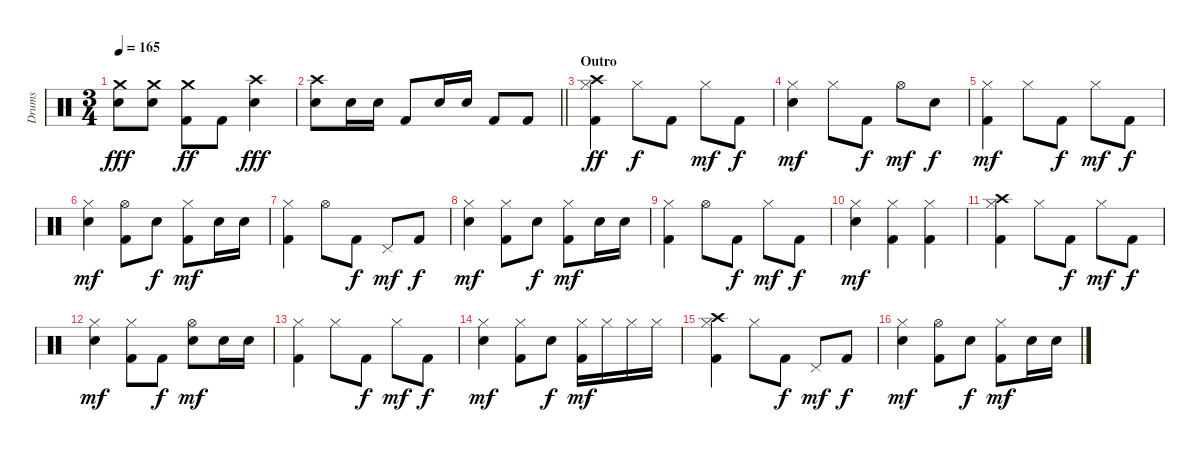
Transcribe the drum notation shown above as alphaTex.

\track ("Drums" "Drums") {instrument percussion}
\staff {score}
\articulation defaults
\ts (3 4)
\tempo 165
\clef neutral
\ks c
("Crash medium (hit)" "Snare (hit) 2").8{dy fff} ("Crash medium (hit)" "Snare (hit) 2").8 ("Crash medium (hit)" "Kick (hit) 2").8{dy ff} "Kick (hit) 2".8 ("Crash high (hit)" "Snare (hit) 2").4{dy fff} |
\barLineRight lightlight
("Crash high (hit)" "Snare (hit) 2").8 "Snare (hit) 2".16 "Snare (hit) 2".16 "Kick (hit) 2".8 "Snare (hit) 2".16 "Snare (hit) 2".16 "Kick (hit) 2".8 "Kick (hit) 2".8 |
\section ("" "Outro")
("Crash high (hit)" "Hi-Hat (closed)" "Kick (hit) 2").4{dy ff} "Hi-Hat (closed)".8{dy f} "Kick (hit) 2".8 "Hi-Hat (closed)".8{dy mf} "Kick (hit) 2".8{dy f} |
("Hi-Hat (closed)" "Snare (hit) 2").4{dy mf} "Hi-Hat (closed)".8 "Kick (hit) 2".8{dy f} "Hi-Hat (open)".8{dy mf} "Snare (hit) 2".8{dy f} |
("Hi-Hat (closed)" "Kick (hit) 2").4{dy mf} "Hi-Hat (closed)".8 "Kick (hit) 2".8{dy f} "Hi-Hat (closed)".8{dy mf} "Kick (hit) 2".8{dy f} |
("Hi-Hat (closed)" "Snare (hit) 2").4{dy mf} ("Hi-Hat (open)" "Kick (hit) 2").8 "Snare (hit) 2".8{dy f} ("Hi-Hat (closed)" "Kick (hit) 2").8{dy mf} "Snare (hit) 2".16 "Snare (hit) 2".16 |
("Hi-Hat (closed)" "Kick (hit) 2").4 "Hi-Hat (open)".8 "Kick (hit) 2".8{dy f} "Pedal Hi-Hat (hit)".8{dy mf} "Kick (hit) 2".8{dy f} |
("Hi-Hat (closed)" "Snare (hit) 2").4{dy mf} ("Hi-Hat (closed)" "Kick (hit) 2").8 "Snare (hit) 2".8{dy f} ("Hi-Hat (closed)" "Kick (hit) 2").8{dy mf} "Snare (hit) 2".16 "Snare (hit) 2".16 |
("Hi-Hat (closed)" "Kick (hit) 2").4 "Hi-Hat (open)".8 "Kick (hit) 2".8{dy f} "Hi-Hat (closed)".8{dy mf} "Kick (hit) 2".8{dy f} |
("Hi-Hat (closed)" "Snare (hit) 2").4{dy mf} ("Hi-Hat (closed)" "Kick (hit) 2").4 ("Hi-Hat (closed)" "Kick (hit) 2").4 |
("Crash high (hit)" "Hi-Hat (closed)" "Kick (hit) 2").4 "Hi-Hat (closed)".8 "Kick (hit) 2".8{dy f} "Hi-Hat (closed)".8{dy mf} "Kick (hit) 2".8{dy f} |
("Hi-Hat (closed)" "Snare (hit) 2").4{dy mf} ("Hi-Hat (closed)" "Kick (hit) 2").8 "Kick (hit) 2".8{dy f} ("Hi-Hat (open)" "Snare (hit) 2").8{dy mf} "Snare (hit) 2".16 "Snare (hit) 2".16 |
("Hi-Hat (closed)" "Kick (hit) 2").4 "Hi-Hat (closed)".8 "Kick (hit) 2".8{dy f} "Hi-Hat (closed)".8{dy mf} "Kick (hit) 2".8{dy f} |
("Hi-Hat (closed)" "Snare (hit) 2").4{dy mf} ("Hi-Hat (closed)" "Kick (hit) 2").8 "Snare (hit) 2".8{dy f} ("Hi-Hat (closed)" "Kick (hit) 2").16{dy mf} "Hi-Hat (closed)".16 "Hi-Hat (closed)".16 "Hi-Hat (closed)".16 |
("Crash high (hit)" "Hi-Hat (closed)" "Kick (hit) 2").4 "Hi-Hat (closed)".8 "Kick (hit) 2".8{dy f} "Pedal Hi-Hat (hit)".8{dy mf} "Kick (hit) 2".8{dy f} |
("Hi-Hat (closed)" "Snare (hit) 2").4{dy mf} ("Hi-Hat (open)" "Kick (hit) 2").8 "Snare (hit) 2".8{dy f} ("Hi-Hat (closed)" "Kick (hit) 2").8{dy mf} "Snare (hit) 2".16 "Snare (hit) 2".16
